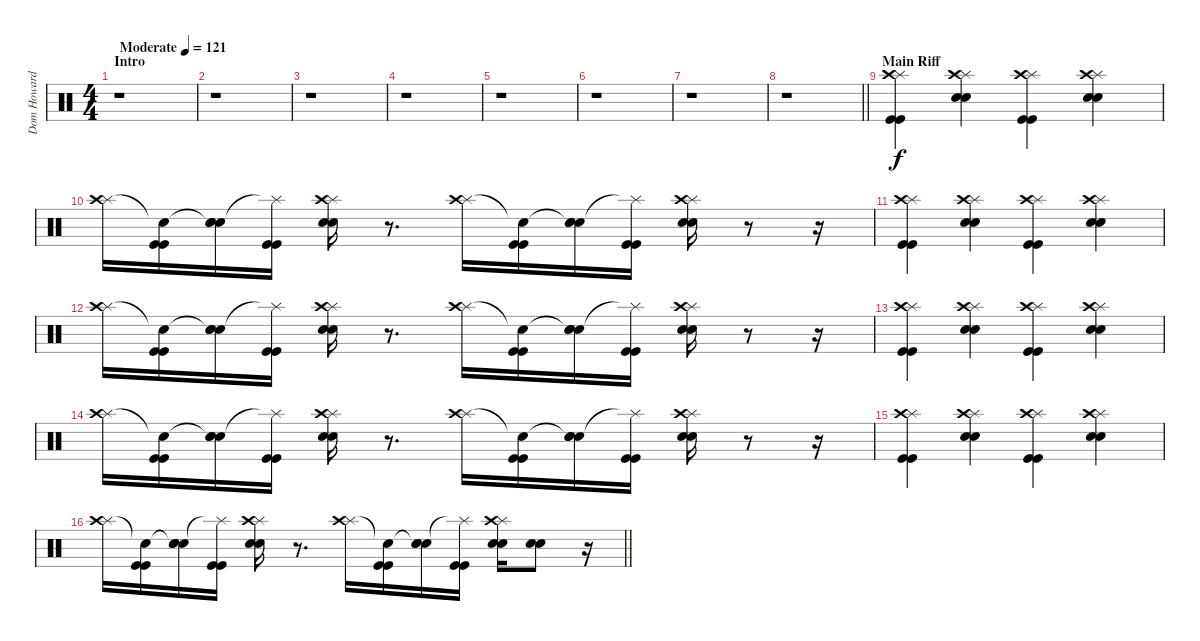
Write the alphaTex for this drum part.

\track ("Dom Howard - Drums" "Dom Howard") {instrument percussion}
\staff {score}
\articulation defaults
\ts (4 4)
\section ("" "Intro")
\tempo (121 "Moderate")
\clef neutral
\ks c
r.1{dy f} |
r.1 |
r.1 |
r.1 |
r.1 |
r.1 |
r.1 |
\barLineRight lightlight
r.1 |
\section ("" "Main Riff")
("Splash (hit)" "Crash high (hit)" "Kick (hit)" "Kick (hit)").4 ("Splash (hit)" "Crash high (hit)" "Electric Snare (hit)" "Electric Snare (hit)").4 ("Splash (hit)" "Crash high (hit)" "Kick (hit)" "Kick (hit)").4 ("Splash (hit)" "Crash high (hit)" "Electric Snare (hit)" "Electric Snare (hit)").4 |
("Splash (hit)" "Crash high (hit)").16 ("Snare (hit)"{t} "Kick (hit)" "Kick (hit)").16 ("Snare (hit)"{t} "Electric Snare (hit)" "Electric Snare (hit)").16 ("Splash (hit)"{t} "Kick (hit)" "Kick (hit)").16 ("Splash (hit)" "Crash high (hit)" "Electric Snare (hit)" "Electric Snare (hit)").16 r.8{d} ("Splash (hit)" "Crash high (hit)").16 ("Snare (hit)"{t} "Kick (hit)" "Kick (hit)").16 ("Snare (hit)"{t} "Electric Snare (hit)" "Electric Snare (hit)").16 ("Splash (hit)"{t} "Kick (hit)" "Kick (hit)").16 ("Splash (hit)" "Crash high (hit)" "Electric Snare (hit)" "Electric Snare (hit)").16 r.8 r.16 |
("Splash (hit)" "Crash high (hit)" "Kick (hit)" "Kick (hit)").4 ("Splash (hit)" "Crash high (hit)" "Electric Snare (hit)" "Electric Snare (hit)").4 ("Splash (hit)" "Crash high (hit)" "Kick (hit)" "Kick (hit)").4 ("Splash (hit)" "Crash high (hit)" "Electric Snare (hit)" "Electric Snare (hit)").4 |
("Splash (hit)" "Crash high (hit)").16 ("Snare (hit)"{t} "Kick (hit)" "Kick (hit)").16 ("Snare (hit)"{t} "Electric Snare (hit)" "Electric Snare (hit)").16 ("Splash (hit)"{t} "Kick (hit)" "Kick (hit)").16 ("Splash (hit)" "Crash high (hit)" "Electric Snare (hit)" "Electric Snare (hit)").16 r.8{d} ("Splash (hit)" "Crash high (hit)").16 ("Snare (hit)"{t} "Kick (hit)" "Kick (hit)").16 ("Snare (hit)"{t} "Electric Snare (hit)" "Electric Snare (hit)").16 ("Splash (hit)"{t} "Kick (hit)" "Kick (hit)").16 ("Splash (hit)" "Crash high (hit)" "Electric Snare (hit)" "Electric Snare (hit)").16 r.8 r.16 |
("Splash (hit)" "Crash high (hit)" "Kick (hit)" "Kick (hit)").4 ("Splash (hit)" "Crash high (hit)" "Electric Snare (hit)" "Electric Snare (hit)").4 ("Splash (hit)" "Crash high (hit)" "Kick (hit)" "Kick (hit)").4 ("Splash (hit)" "Crash high (hit)" "Electric Snare (hit)" "Electric Snare (hit)").4 |
("Splash (hit)" "Crash high (hit)").16 ("Snare (hit)"{t} "Kick (hit)" "Kick (hit)").16 ("Snare (hit)"{t} "Electric Snare (hit)" "Electric Snare (hit)").16 ("Splash (hit)"{t} "Kick (hit)" "Kick (hit)").16 ("Splash (hit)" "Crash high (hit)" "Electric Snare (hit)" "Electric Snare (hit)").16 r.8{d} ("Splash (hit)" "Crash high (hit)").16 ("Snare (hit)"{t} "Kick (hit)" "Kick (hit)").16 ("Snare (hit)"{t} "Electric Snare (hit)" "Electric Snare (hit)").16 ("Splash (hit)"{t} "Kick (hit)" "Kick (hit)").16 ("Splash (hit)" "Crash high (hit)" "Electric Snare (hit)" "Electric Snare (hit)").16 r.8 r.16 |
("Splash (hit)" "Crash high (hit)" "Kick (hit)" "Kick (hit)").4 ("Splash (hit)" "Crash high (hit)" "Electric Snare (hit)" "Electric Snare (hit)").4 ("Splash (hit)" "Crash high (hit)" "Kick (hit)" "Kick (hit)").4 ("Splash (hit)" "Crash high (hit)" "Electric Snare (hit)" "Electric Snare (hit)").4 |
\barLineRight lightlight
("Splash (hit)" "Crash high (hit)").16 ("Snare (hit)"{t} "Kick (hit)" "Kick (hit)").16 ("Snare (hit)"{t} "Electric Snare (hit)" "Electric Snare (hit)").16 ("Splash (hit)"{t} "Kick (hit)" "Kick (hit)").16 ("Splash (hit)" "Crash high (hit)" "Electric Snare (hit)" "Electric Snare (hit)").16 r.8{d} ("Splash (hit)" "Crash high (hit)").16 ("Snare (hit)"{t} "Kick (hit)" "Kick (hit)").16 ("Snare (hit)"{t} "Electric Snare (hit)" "Electric Snare (hit)").16 ("Splash (hit)"{t} "Kick (hit)" "Kick (hit)").16 ("Splash (hit)" "Crash high (hit)" "Electric Snare (hit)" "Electric Snare (hit)").16 ("Electric Snare (hit)" "Electric Snare (hit)").8 r.16
